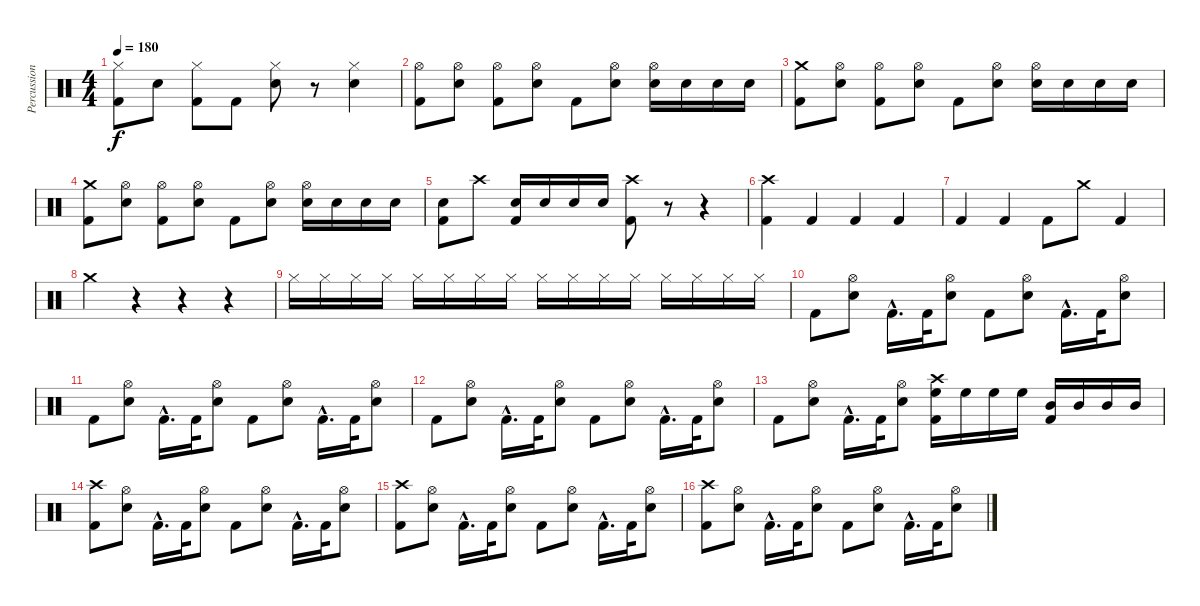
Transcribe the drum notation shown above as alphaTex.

\track ("Percussion" "Percussion") {instrument percussion}
\staff {score}
\articulation defaults
\ts (4 4)
\tempo 180
\clef neutral
\ks c
("Hi-Hat (closed)" "Kick (hit) 2").8{dy f} "Snare (hit) 2".8 ("Hi-Hat (closed)" "Kick (hit) 2").8 "Kick (hit) 2".8 ("Hi-Hat (closed)" "Snare (hit) 2").8 r.8 ("Hi-Hat (closed)" "Snare (hit) 2").4 |
("Hi-Hat (open)" "Kick (hit) 2").8 ("Hi-Hat (open)" "Snare (hit) 2").8 ("Hi-Hat (open)" "Kick (hit) 2").8 ("Hi-Hat (open)" "Snare (hit) 2").8 "Kick (hit) 2".8 ("Hi-Hat (open)" "Snare (hit) 2").8 ("Hi-Hat (open)" "Snare (hit) 2").16 "Snare (hit) 2".16 "Snare (hit) 2".16 "Snare (hit) 2".16 |
("Crash medium (hit)" "Kick (hit) 2").8 ("Hi-Hat (open)" "Snare (hit) 2").8 ("Hi-Hat (open)" "Kick (hit) 2").8 ("Hi-Hat (open)" "Snare (hit) 2").8 "Kick (hit) 2".8 ("Hi-Hat (open)" "Snare (hit) 2").8 ("Hi-Hat (open)" "Snare (hit) 2").16 "Snare (hit) 2".16 "Snare (hit) 2".16 "Snare (hit) 2".16 |
("Crash medium (hit)" "Kick (hit) 2").8 ("Hi-Hat (open)" "Snare (hit) 2").8 ("Hi-Hat (open)" "Kick (hit) 2").8 ("Hi-Hat (open)" "Snare (hit) 2").8 "Kick (hit) 2".8 ("Hi-Hat (open)" "Snare (hit) 2").8 ("Hi-Hat (open)" "Snare (hit) 2").16 "Snare (hit) 2".16 "Snare (hit) 2".16 "Snare (hit) 2".16 |
("Snare (hit) 2" "Kick (hit) 2").8 "Crash high (hit)".8 ("Snare (hit) 2" "Kick (hit) 2").16 "Snare (hit) 2".16 "Snare (hit) 2".16 "Snare (hit) 2".16 ("Crash high (hit)" "Kick (hit) 2").8 r.8 r.4 |
("Crash high (hit)" "Kick (hit) 2").4 "Kick (hit) 2".4 "Kick (hit) 2".4 "Kick (hit) 2".4 |
"Kick (hit) 2".4 "Kick (hit) 2".4 "Kick (hit) 2".8 "Crash medium (hit)".8 "Kick (hit) 2".4 |
"Crash medium (hit)".4 r.4 r.4 r.4 |
"Hi-Hat (closed)".16 "Hi-Hat (closed)".16 "Hi-Hat (closed)".16 "Hi-Hat (closed)".16 "Hi-Hat (closed)".16 "Hi-Hat (closed)".16 "Hi-Hat (closed)".16 "Hi-Hat (closed)".16 "Hi-Hat (closed)".16 "Hi-Hat (closed)".16 "Hi-Hat (closed)".16 "Hi-Hat (closed)".16 "Hi-Hat (closed)".16 "Hi-Hat (closed)".16 "Hi-Hat (closed)".16 "Hi-Hat (closed)".16 |
"Kick (hit) 2".8 ("Hi-Hat (open)" "Snare (hit) 2").8 "Kick (hit) 2"{hac}.16{d} "Kick (hit) 2".32 ("Hi-Hat (open)" "Snare (hit) 2").8 "Kick (hit) 2".8 ("Hi-Hat (open)" "Snare (hit) 2").8 "Kick (hit) 2"{hac}.16{d} "Kick (hit) 2".32 ("Hi-Hat (open)" "Snare (hit) 2").8 |
"Kick (hit) 2".8 ("Hi-Hat (open)" "Snare (hit) 2").8 "Kick (hit) 2"{hac}.16{d} "Kick (hit) 2".32 ("Hi-Hat (open)" "Snare (hit) 2").8 "Kick (hit) 2".8 ("Hi-Hat (open)" "Snare (hit) 2").8 "Kick (hit) 2"{hac}.16{d} "Kick (hit) 2".32 ("Hi-Hat (open)" "Snare (hit) 2").8 |
"Kick (hit) 2".8 ("Hi-Hat (open)" "Snare (hit) 2").8 "Kick (hit) 2"{hac}.16{d} "Kick (hit) 2".32 ("Hi-Hat (open)" "Snare (hit) 2").8 "Kick (hit) 2".8 ("Hi-Hat (open)" "Snare (hit) 2").8 "Kick (hit) 2"{hac}.16{d} "Kick (hit) 2".32 ("Hi-Hat (open)" "Snare (hit) 2").8 |
"Kick (hit) 2".8 ("Hi-Hat (open)" "Snare (hit) 2").8 "Kick (hit) 2"{hac}.16{d} "Kick (hit) 2".32 ("Hi-Hat (open)" "Snare (hit) 2").8 ("Crash high (hit)" "High Floor Tom (hit)" "Kick (hit) 2").16 "High Floor Tom (hit)".16 "High Floor Tom (hit)".16 "High Floor Tom (hit)".16 ("Mid Tom (hit)" "Kick (hit) 2").16 "Mid Tom (hit)".16 "Mid Tom (hit)".16 "Mid Tom (hit)".16 |
("Crash high (hit)" "Kick (hit) 2").8 ("Hi-Hat (open)" "Snare (hit) 2").8 "Kick (hit) 2"{hac}.16{d} "Kick (hit) 2".32 ("Hi-Hat (open)" "Snare (hit) 2").8 "Kick (hit) 2".8 ("Hi-Hat (open)" "Snare (hit) 2").8 "Kick (hit) 2"{hac}.16{d} "Kick (hit) 2".32 ("Hi-Hat (open)" "Snare (hit) 2").8 |
("Crash high (hit)" "Kick (hit) 2").8 ("Hi-Hat (open)" "Snare (hit) 2").8 "Kick (hit) 2"{hac}.16{d} "Kick (hit) 2".32 ("Hi-Hat (open)" "Snare (hit) 2").8 "Kick (hit) 2".8 ("Hi-Hat (open)" "Snare (hit) 2").8 "Kick (hit) 2"{hac}.16{d} "Kick (hit) 2".32 ("Hi-Hat (open)" "Snare (hit) 2").8 |
("Crash high (hit)" "Kick (hit) 2").8 ("Hi-Hat (open)" "Snare (hit) 2").8 "Kick (hit) 2"{hac}.16{d} "Kick (hit) 2".32 ("Hi-Hat (open)" "Snare (hit) 2").8 "Kick (hit) 2".8 ("Hi-Hat (open)" "Snare (hit) 2").8 "Kick (hit) 2"{hac}.16{d} "Kick (hit) 2".32 ("Hi-Hat (open)" "Snare (hit) 2").8
